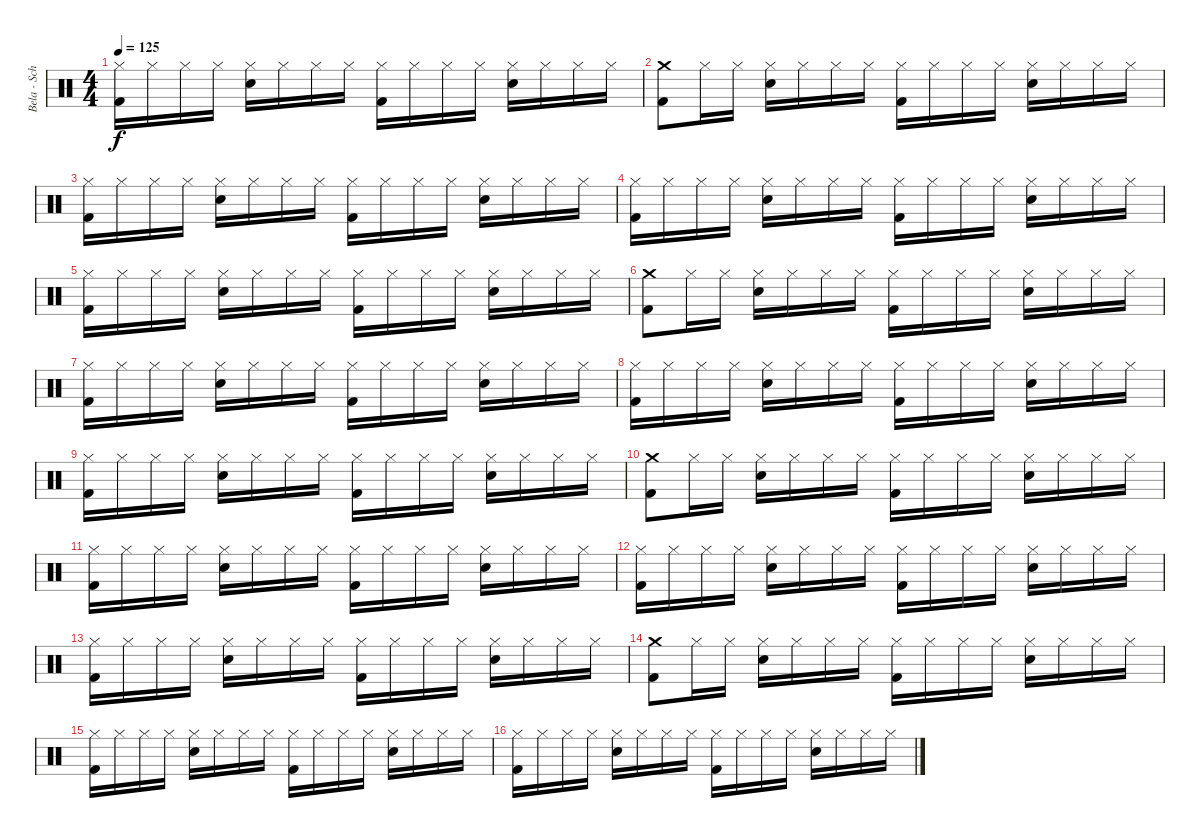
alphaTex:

\track ("Bela - Schlagzeug" "Bela - Sch") {instrument percussion}
\staff {score}
\articulation defaults
\ts (4 4)
\tempo 125
\clef neutral
\ks c
("Hi-Hat (closed)" "Kick (hit) 2").16{dy f} "Hi-Hat (closed)".16 "Hi-Hat (closed)".16 "Hi-Hat (closed)".16 ("Hi-Hat (closed)" "Electric Snare (hit)").16 "Hi-Hat (closed)".16 "Hi-Hat (closed)".16 "Hi-Hat (closed)".16 ("Hi-Hat (closed)" "Kick (hit) 2").16 "Hi-Hat (closed)".16 "Hi-Hat (closed)".16 "Hi-Hat (closed)".16 ("Hi-Hat (closed)" "Electric Snare (hit)").16 "Hi-Hat (closed)".16 "Hi-Hat (closed)".16 "Hi-Hat (closed)".16 |
("Crash medium (hit)" "Kick (hit) 2").8 "Hi-Hat (closed)".16 "Hi-Hat (closed)".16 ("Hi-Hat (closed)" "Electric Snare (hit)").16 "Hi-Hat (closed)".16 "Hi-Hat (closed)".16 "Hi-Hat (closed)".16 ("Hi-Hat (closed)" "Kick (hit) 2").16 "Hi-Hat (closed)".16 "Hi-Hat (closed)".16 "Hi-Hat (closed)".16 ("Hi-Hat (closed)" "Electric Snare (hit)").16 "Hi-Hat (closed)".16 "Hi-Hat (closed)".16 "Hi-Hat (closed)".16 |
("Hi-Hat (closed)" "Kick (hit) 2").16 "Hi-Hat (closed)".16 "Hi-Hat (closed)".16 "Hi-Hat (closed)".16 ("Hi-Hat (closed)" "Electric Snare (hit)").16 "Hi-Hat (closed)".16 "Hi-Hat (closed)".16 "Hi-Hat (closed)".16 ("Hi-Hat (closed)" "Kick (hit) 2").16 "Hi-Hat (closed)".16 "Hi-Hat (closed)".16 "Hi-Hat (closed)".16 ("Hi-Hat (closed)" "Electric Snare (hit)").16 "Hi-Hat (closed)".16 "Hi-Hat (closed)".16 "Hi-Hat (closed)".16 |
("Hi-Hat (closed)" "Kick (hit) 2").16 "Hi-Hat (closed)".16 "Hi-Hat (closed)".16 "Hi-Hat (closed)".16 ("Hi-Hat (closed)" "Electric Snare (hit)").16 "Hi-Hat (closed)".16 "Hi-Hat (closed)".16 "Hi-Hat (closed)".16 ("Hi-Hat (closed)" "Kick (hit) 2").16 "Hi-Hat (closed)".16 "Hi-Hat (closed)".16 "Hi-Hat (closed)".16 ("Hi-Hat (closed)" "Electric Snare (hit)").16 "Hi-Hat (closed)".16 "Hi-Hat (closed)".16 "Hi-Hat (closed)".16 |
("Hi-Hat (closed)" "Kick (hit) 2").16 "Hi-Hat (closed)".16 "Hi-Hat (closed)".16 "Hi-Hat (closed)".16 ("Hi-Hat (closed)" "Electric Snare (hit)").16 "Hi-Hat (closed)".16 "Hi-Hat (closed)".16 "Hi-Hat (closed)".16 ("Hi-Hat (closed)" "Kick (hit) 2").16 "Hi-Hat (closed)".16 "Hi-Hat (closed)".16 "Hi-Hat (closed)".16 ("Hi-Hat (closed)" "Electric Snare (hit)").16 "Hi-Hat (closed)".16 "Hi-Hat (closed)".16 "Hi-Hat (closed)".16 |
("Crash medium (hit)" "Kick (hit) 2").8 "Hi-Hat (closed)".16 "Hi-Hat (closed)".16 ("Hi-Hat (closed)" "Electric Snare (hit)").16 "Hi-Hat (closed)".16 "Hi-Hat (closed)".16 "Hi-Hat (closed)".16 ("Hi-Hat (closed)" "Kick (hit) 2").16 "Hi-Hat (closed)".16 "Hi-Hat (closed)".16 "Hi-Hat (closed)".16 ("Hi-Hat (closed)" "Electric Snare (hit)").16 "Hi-Hat (closed)".16 "Hi-Hat (closed)".16 "Hi-Hat (closed)".16 |
("Hi-Hat (closed)" "Kick (hit) 2").16 "Hi-Hat (closed)".16 "Hi-Hat (closed)".16 "Hi-Hat (closed)".16 ("Hi-Hat (closed)" "Electric Snare (hit)").16 "Hi-Hat (closed)".16 "Hi-Hat (closed)".16 "Hi-Hat (closed)".16 ("Hi-Hat (closed)" "Kick (hit) 2").16 "Hi-Hat (closed)".16 "Hi-Hat (closed)".16 "Hi-Hat (closed)".16 ("Hi-Hat (closed)" "Electric Snare (hit)").16 "Hi-Hat (closed)".16 "Hi-Hat (closed)".16 "Hi-Hat (closed)".16 |
("Hi-Hat (closed)" "Kick (hit) 2").16 "Hi-Hat (closed)".16 "Hi-Hat (closed)".16 "Hi-Hat (closed)".16 ("Hi-Hat (closed)" "Electric Snare (hit)").16 "Hi-Hat (closed)".16 "Hi-Hat (closed)".16 "Hi-Hat (closed)".16 ("Hi-Hat (closed)" "Kick (hit) 2").16 "Hi-Hat (closed)".16 "Hi-Hat (closed)".16 "Hi-Hat (closed)".16 ("Hi-Hat (closed)" "Electric Snare (hit)").16 "Hi-Hat (closed)".16 "Hi-Hat (closed)".16 "Hi-Hat (closed)".16 |
("Hi-Hat (closed)" "Kick (hit) 2").16 "Hi-Hat (closed)".16 "Hi-Hat (closed)".16 "Hi-Hat (closed)".16 ("Hi-Hat (closed)" "Electric Snare (hit)").16 "Hi-Hat (closed)".16 "Hi-Hat (closed)".16 "Hi-Hat (closed)".16 ("Hi-Hat (closed)" "Kick (hit) 2").16 "Hi-Hat (closed)".16 "Hi-Hat (closed)".16 "Hi-Hat (closed)".16 ("Hi-Hat (closed)" "Electric Snare (hit)").16 "Hi-Hat (closed)".16 "Hi-Hat (closed)".16 "Hi-Hat (closed)".16 |
("Crash medium (hit)" "Kick (hit) 2").8 "Hi-Hat (closed)".16 "Hi-Hat (closed)".16 ("Hi-Hat (closed)" "Electric Snare (hit)").16 "Hi-Hat (closed)".16 "Hi-Hat (closed)".16 "Hi-Hat (closed)".16 ("Hi-Hat (closed)" "Kick (hit) 2").16 "Hi-Hat (closed)".16 "Hi-Hat (closed)".16 "Hi-Hat (closed)".16 ("Hi-Hat (closed)" "Electric Snare (hit)").16 "Hi-Hat (closed)".16 "Hi-Hat (closed)".16 "Hi-Hat (closed)".16 |
("Hi-Hat (closed)" "Kick (hit) 2").16 "Hi-Hat (closed)".16 "Hi-Hat (closed)".16 "Hi-Hat (closed)".16 ("Hi-Hat (closed)" "Electric Snare (hit)").16 "Hi-Hat (closed)".16 "Hi-Hat (closed)".16 "Hi-Hat (closed)".16 ("Hi-Hat (closed)" "Kick (hit) 2").16 "Hi-Hat (closed)".16 "Hi-Hat (closed)".16 "Hi-Hat (closed)".16 ("Hi-Hat (closed)" "Electric Snare (hit)").16 "Hi-Hat (closed)".16 "Hi-Hat (closed)".16 "Hi-Hat (closed)".16 |
("Hi-Hat (closed)" "Kick (hit) 2").16 "Hi-Hat (closed)".16 "Hi-Hat (closed)".16 "Hi-Hat (closed)".16 ("Hi-Hat (closed)" "Electric Snare (hit)").16 "Hi-Hat (closed)".16 "Hi-Hat (closed)".16 "Hi-Hat (closed)".16 ("Hi-Hat (closed)" "Kick (hit) 2").16 "Hi-Hat (closed)".16 "Hi-Hat (closed)".16 "Hi-Hat (closed)".16 ("Hi-Hat (closed)" "Electric Snare (hit)").16 "Hi-Hat (closed)".16 "Hi-Hat (closed)".16 "Hi-Hat (closed)".16 |
("Hi-Hat (closed)" "Kick (hit) 2").16 "Hi-Hat (closed)".16 "Hi-Hat (closed)".16 "Hi-Hat (closed)".16 ("Hi-Hat (closed)" "Electric Snare (hit)").16 "Hi-Hat (closed)".16 "Hi-Hat (closed)".16 "Hi-Hat (closed)".16 ("Hi-Hat (closed)" "Kick (hit) 2").16 "Hi-Hat (closed)".16 "Hi-Hat (closed)".16 "Hi-Hat (closed)".16 ("Hi-Hat (closed)" "Electric Snare (hit)").16 "Hi-Hat (closed)".16 "Hi-Hat (closed)".16 "Hi-Hat (closed)".16 |
("Crash medium (hit)" "Kick (hit) 2").8 "Hi-Hat (closed)".16 "Hi-Hat (closed)".16 ("Hi-Hat (closed)" "Electric Snare (hit)").16 "Hi-Hat (closed)".16 "Hi-Hat (closed)".16 "Hi-Hat (closed)".16 ("Hi-Hat (closed)" "Kick (hit) 2").16 "Hi-Hat (closed)".16 "Hi-Hat (closed)".16 "Hi-Hat (closed)".16 ("Hi-Hat (closed)" "Electric Snare (hit)").16 "Hi-Hat (closed)".16 "Hi-Hat (closed)".16 "Hi-Hat (closed)".16 |
("Hi-Hat (closed)" "Kick (hit) 2").16 "Hi-Hat (closed)".16 "Hi-Hat (closed)".16 "Hi-Hat (closed)".16 ("Hi-Hat (closed)" "Electric Snare (hit)").16 "Hi-Hat (closed)".16 "Hi-Hat (closed)".16 "Hi-Hat (closed)".16 ("Hi-Hat (closed)" "Kick (hit) 2").16 "Hi-Hat (closed)".16 "Hi-Hat (closed)".16 "Hi-Hat (closed)".16 ("Hi-Hat (closed)" "Electric Snare (hit)").16 "Hi-Hat (closed)".16 "Hi-Hat (closed)".16 "Hi-Hat (closed)".16 |
("Hi-Hat (closed)" "Kick (hit) 2").16 "Hi-Hat (closed)".16 "Hi-Hat (closed)".16 "Hi-Hat (closed)".16 ("Hi-Hat (closed)" "Electric Snare (hit)").16 "Hi-Hat (closed)".16 "Hi-Hat (closed)".16 "Hi-Hat (closed)".16 ("Hi-Hat (closed)" "Kick (hit) 2").16 "Hi-Hat (closed)".16 "Hi-Hat (closed)".16 "Hi-Hat (closed)".16 ("Hi-Hat (closed)" "Electric Snare (hit)").16 "Hi-Hat (closed)".16 "Hi-Hat (closed)".16 "Hi-Hat (closed)".16
